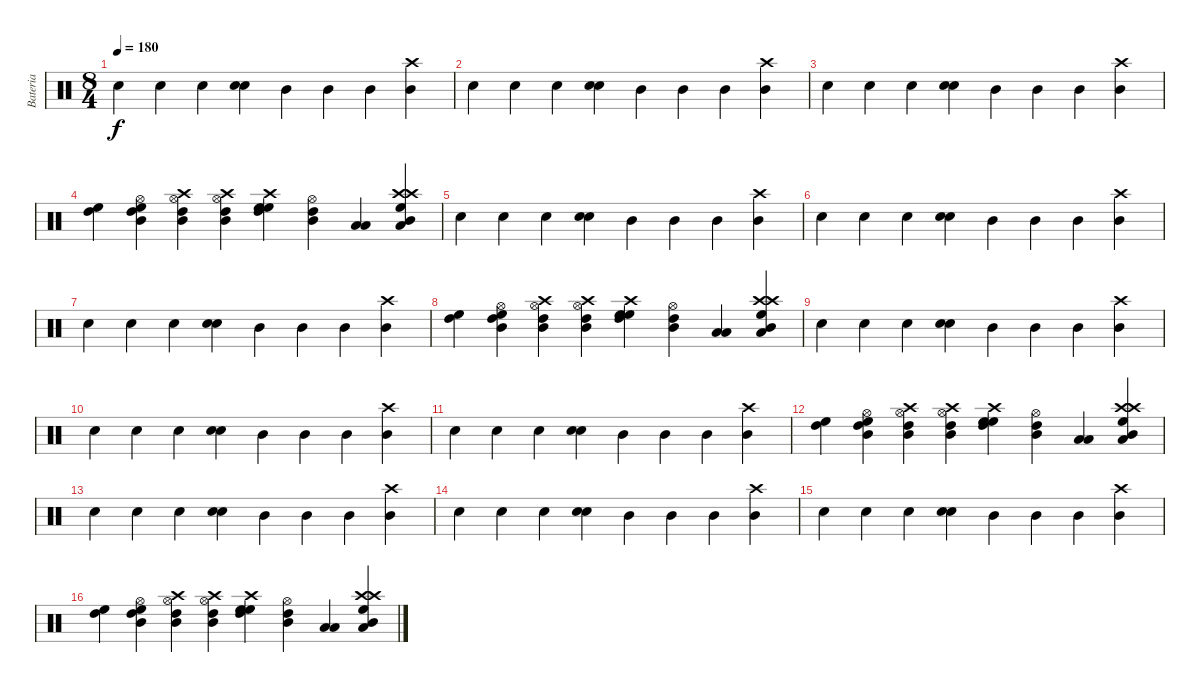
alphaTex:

\track ("Bateria" "Bateria") {instrument percussion}
\staff {score}
\articulation defaults
\ts (8 4)
\tempo 180
\clef neutral
\ks c "Snare (hit) 2".4{dy f} "Snare (hit) 2".4 "Snare (hit) 2".4
("Snare (hit) 2" "Snare (hit) 2").4 "Mid Tom (hit)".4 "Mid Tom (hit)".4 "Mid Tom (hit)".4 ("Mid Tom (hit)" "Crash high (hit)").4 |
"Snare (hit) 2".4 "Snare (hit) 2".4 "Snare (hit) 2".4 ("Snare (hit) 2" "Snare (hit) 2").4 "Mid Tom (hit)".4 "Mid Tom (hit)".4 "Mid Tom (hit)".4 ("Mid Tom (hit)" "Crash high (hit)").4 |
"Snare (hit) 2".4 "Snare (hit) 2".4 "Snare (hit) 2".4 ("Snare (hit) 2" "Snare (hit) 2").4 "Mid Tom (hit)".4 "Mid Tom (hit)".4 "Mid Tom (hit)".4 ("Mid Tom (hit)" "Crash high (hit)").4 |
("High Tom (hit)" "High Floor Tom (hit)").4 ("High Tom (hit)" "Mid Tom (hit)" "Hi-Hat (open)" "High Floor Tom (hit)").4 ("High Tom (hit)" "Crash high (hit)" "Mid Tom (hit)" "Hi-Hat (open)").4 ("Crash high (hit)" "High Tom (hit)" "Mid Tom (hit)" "Hi-Hat (open)").4 ("High Tom (hit)" "Crash high (hit)" "High Floor Tom (hit)" "High Floor Tom (hit)").4 ("Mid Tom (hit)" "High Tom (hit)" "Hi-Hat (open)").4 ("Low Tom (hit)" "Low Tom (hit)").4 ("Crash high (hit)" "Mid Tom (hit)" "High Floor Tom (hit)" "Crash high (hit)" "Low Tom (hit)").4 |
"Snare (hit) 2".4 "Snare (hit) 2".4 "Snare (hit) 2".4 ("Snare (hit) 2" "Snare (hit) 2").4 "Mid Tom (hit)".4 "Mid Tom (hit)".4 "Mid Tom (hit)".4 ("Mid Tom (hit)" "Crash high (hit)").4 |
"Snare (hit) 2".4 "Snare (hit) 2".4 "Snare (hit) 2".4 ("Snare (hit) 2" "Snare (hit) 2").4 "Mid Tom (hit)".4 "Mid Tom (hit)".4 "Mid Tom (hit)".4 ("Mid Tom (hit)" "Crash high (hit)").4 |
"Snare (hit) 2".4 "Snare (hit) 2".4 "Snare (hit) 2".4 ("Snare (hit) 2" "Snare (hit) 2").4 "Mid Tom (hit)".4 "Mid Tom (hit)".4 "Mid Tom (hit)".4 ("Mid Tom (hit)" "Crash high (hit)").4 |
("High Tom (hit)" "High Floor Tom (hit)").4 ("High Tom (hit)" "Mid Tom (hit)" "Hi-Hat (open)" "High Floor Tom (hit)").4 ("High Tom (hit)" "Crash high (hit)" "Mid Tom (hit)" "Hi-Hat (open)").4 ("Crash high (hit)" "High Tom (hit)" "Mid Tom (hit)" "Hi-Hat (open)").4 ("High Tom (hit)" "Crash high (hit)" "High Floor Tom (hit)" "High Floor Tom (hit)").4 ("Mid Tom (hit)" "High Tom (hit)" "Hi-Hat (open)").4 ("Low Tom (hit)" "Low Tom (hit)").4 ("Crash high (hit)" "Mid Tom (hit)" "High Floor Tom (hit)" "Crash high (hit)" "Low Tom (hit)").4 |
"Snare (hit) 2".4 "Snare (hit) 2".4 "Snare (hit) 2".4 ("Snare (hit) 2" "Snare (hit) 2").4 "Mid Tom (hit)".4 "Mid Tom (hit)".4 "Mid Tom (hit)".4 ("Mid Tom (hit)" "Crash high (hit)").4 |
"Snare (hit) 2".4 "Snare (hit) 2".4 "Snare (hit) 2".4 ("Snare (hit) 2" "Snare (hit) 2").4 "Mid Tom (hit)".4 "Mid Tom (hit)".4 "Mid Tom (hit)".4 ("Mid Tom (hit)" "Crash high (hit)").4 |
"Snare (hit) 2".4 "Snare (hit) 2".4 "Snare (hit) 2".4 ("Snare (hit) 2" "Snare (hit) 2").4 "Mid Tom (hit)".4 "Mid Tom (hit)".4 "Mid Tom (hit)".4 ("Mid Tom (hit)" "Crash high (hit)").4 |
("High Tom (hit)" "High Floor Tom (hit)").4 ("High Tom (hit)" "Mid Tom (hit)" "Hi-Hat (open)" "High Floor Tom (hit)").4 ("High Tom (hit)" "Crash high (hit)" "Mid Tom (hit)" "Hi-Hat (open)").4 ("Crash high (hit)" "High Tom (hit)" "Mid Tom (hit)" "Hi-Hat (open)").4 ("High Tom (hit)" "Crash high (hit)" "High Floor Tom (hit)" "High Floor Tom (hit)").4 ("Mid Tom (hit)" "High Tom (hit)" "Hi-Hat (open)").4 ("Low Tom (hit)" "Low Tom (hit)").4 ("Crash high (hit)" "Mid Tom (hit)" "High Floor Tom (hit)" "Crash high (hit)" "Low Tom (hit)").4 |
"Snare (hit) 2".4 "Snare (hit) 2".4 "Snare (hit) 2".4 ("Snare (hit) 2" "Snare (hit) 2").4 "Mid Tom (hit)".4 "Mid Tom (hit)".4 "Mid Tom (hit)".4 ("Mid Tom (hit)" "Crash high (hit)").4 |
"Snare (hit) 2".4 "Snare (hit) 2".4 "Snare (hit) 2".4 ("Snare (hit) 2" "Snare (hit) 2").4 "Mid Tom (hit)".4 "Mid Tom (hit)".4 "Mid Tom (hit)".4 ("Mid Tom (hit)" "Crash high (hit)").4 |
"Snare (hit) 2".4 "Snare (hit) 2".4 "Snare (hit) 2".4 ("Snare (hit) 2" "Snare (hit) 2").4 "Mid Tom (hit)".4 "Mid Tom (hit)".4 "Mid Tom (hit)".4 ("Mid Tom (hit)" "Crash high (hit)").4 |
("High Tom (hit)" "High Floor Tom (hit)").4 ("High Tom (hit)" "Mid Tom (hit)" "Hi-Hat (open)" "High Floor Tom (hit)").4 ("High Tom (hit)" "Crash high (hit)" "Mid Tom (hit)" "Hi-Hat (open)").4 ("Crash high (hit)" "High Tom (hit)" "Mid Tom (hit)" "Hi-Hat (open)").4 ("High Tom (hit)" "Crash high (hit)" "High Floor Tom (hit)" "High Floor Tom (hit)").4 ("Mid Tom (hit)" "High Tom (hit)" "Hi-Hat (open)").4 ("Low Tom (hit)" "Low Tom (hit)").4 ("Crash high (hit)" "Mid Tom (hit)" "High Floor Tom (hit)" "Crash high (hit)" "Low Tom (hit)").4
